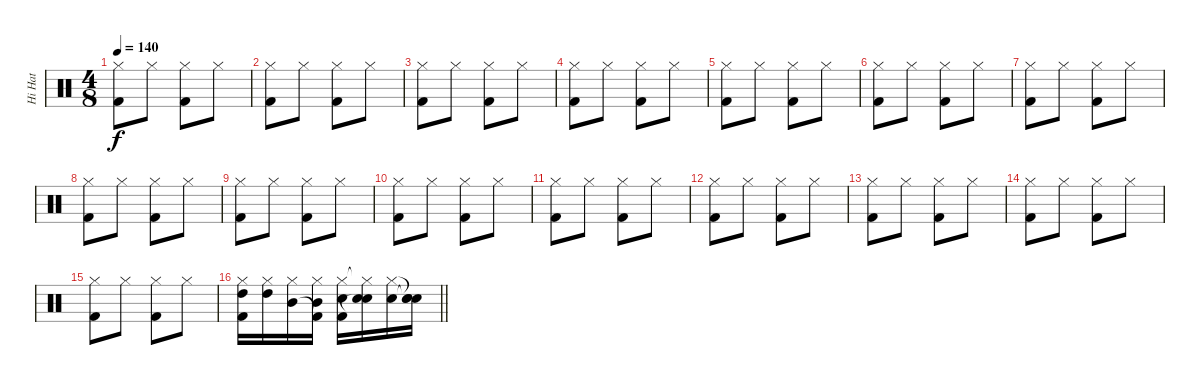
\track ("Hi Hat" "Hi Hat") {instrument percussion}
\staff {score}
\articulation defaults
\ts (4 8)
\tempo 140
\clef neutral
\ks c
("Hi-Hat (closed)" "Kick (hit) 2").8{dy f} "Hi-Hat (closed)".8 ("Hi-Hat (closed)" "Kick (hit) 2").8 "Hi-Hat (closed)".8 |
("Hi-Hat (closed)" "Kick (hit) 2").8 "Hi-Hat (closed)".8 ("Hi-Hat (closed)" "Kick (hit) 2").8 "Hi-Hat (closed)".8 |
("Hi-Hat (closed)" "Kick (hit) 2").8 "Hi-Hat (closed)".8 ("Hi-Hat (closed)" "Kick (hit) 2").8 "Hi-Hat (closed)".8 |
("Hi-Hat (closed)" "Kick (hit) 2").8 "Hi-Hat (closed)".8 ("Hi-Hat (closed)" "Kick (hit) 2").8 "Hi-Hat (closed)".8 |
("Hi-Hat (closed)" "Kick (hit) 2").8 "Hi-Hat (closed)".8 ("Hi-Hat (closed)" "Kick (hit) 2").8 "Hi-Hat (closed)".8 |
("Hi-Hat (closed)" "Kick (hit) 2").8 "Hi-Hat (closed)".8 ("Hi-Hat (closed)" "Kick (hit) 2").8 "Hi-Hat (closed)".8 |
("Hi-Hat (closed)" "Kick (hit) 2").8 "Hi-Hat (closed)".8 ("Hi-Hat (closed)" "Kick (hit) 2").8 "Hi-Hat (closed)".8 |
("Hi-Hat (closed)" "Kick (hit) 2").8 "Hi-Hat (closed)".8 ("Hi-Hat (closed)" "Kick (hit) 2").8 "Hi-Hat (closed)".8 |
("Hi-Hat (closed)" "Kick (hit) 2").8 "Hi-Hat (closed)".8 ("Hi-Hat (closed)" "Kick (hit) 2").8 "Hi-Hat (closed)".8 |
("Hi-Hat (closed)" "Kick (hit) 2").8 "Hi-Hat (closed)".8 ("Hi-Hat (closed)" "Kick (hit) 2").8 "Hi-Hat (closed)".8 |
("Hi-Hat (closed)" "Kick (hit) 2").8 "Hi-Hat (closed)".8 ("Hi-Hat (closed)" "Kick (hit) 2").8 "Hi-Hat (closed)".8 |
("Hi-Hat (closed)" "Kick (hit) 2").8 "Hi-Hat (closed)".8 ("Hi-Hat (closed)" "Kick (hit) 2").8 "Hi-Hat (closed)".8 |
("Hi-Hat (closed)" "Kick (hit) 2").8 "Hi-Hat (closed)".8 ("Hi-Hat (closed)" "Kick (hit) 2").8 "Hi-Hat (closed)".8 |
("Hi-Hat (closed)" "Kick (hit) 2").8 "Hi-Hat (closed)".8 ("Hi-Hat (closed)" "Kick (hit) 2").8 "Hi-Hat (closed)".8 |
("Hi-Hat (closed)" "Kick (hit) 2").8 "Hi-Hat (closed)".8 ("Hi-Hat (closed)" "Kick (hit) 2").8 "Hi-Hat (closed)".8 |
\barLineRight lightlight
("Hi-Hat (closed)" "Kick (hit) 2" "High Tom (hit)").16 ("Hi-Hat (closed)" "High Tom (hit)").16 ("Hi-Hat (closed)" "Mid Tom (hit)").16 ("Hi-Hat (closed)" "Kick (hit) 2"{t} "Mid Tom (hit)").16 ("Hi-Hat (closed)" "Kick (hit) 2" "Snare (hit) 2").16 ("Hi-Hat (closed)"{t} "Snare (hit)"{t} "Snare (hit) 2").16 ("Hi-Hat (closed)" "Snare (hit) 2").16 ("Snare (hit)"{t} "Snare (hit)"{t} "Snare (hit) 2").16
